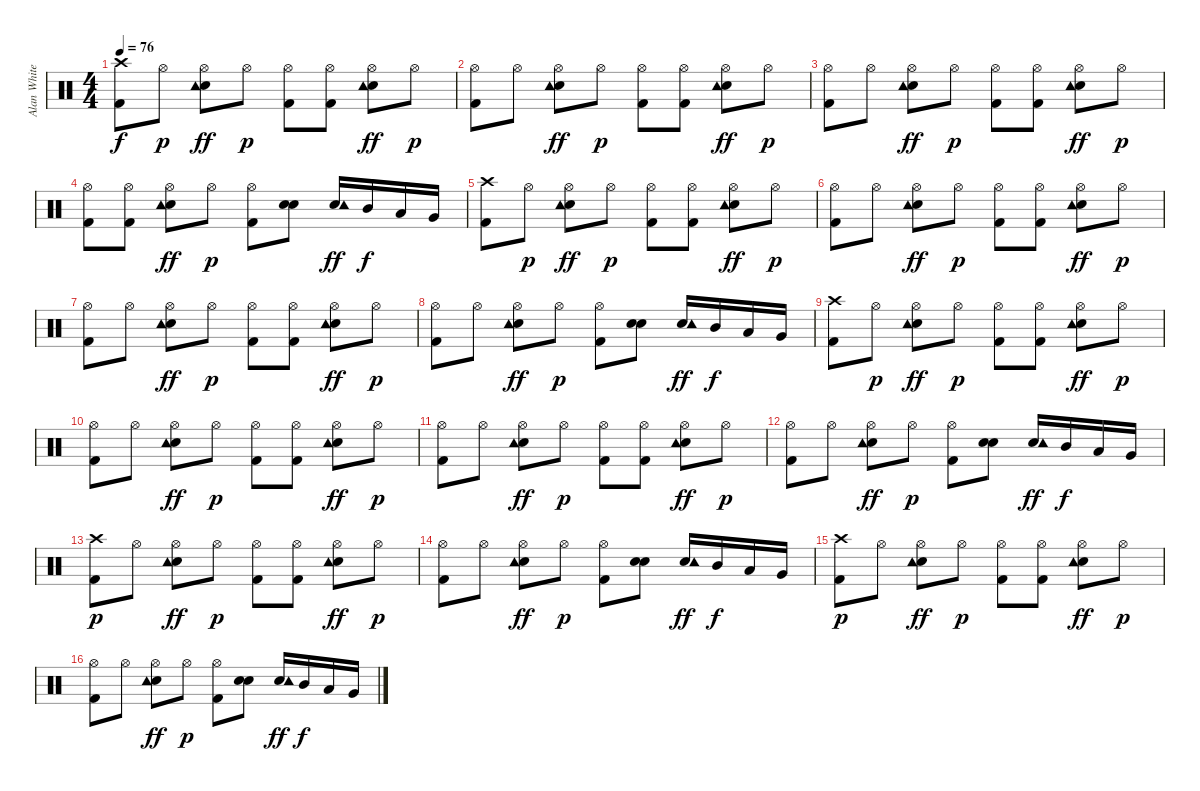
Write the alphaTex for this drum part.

\track ("Alan White" "Alan White") {instrument percussion}
\staff {score}
\articulation defaults
\ts (4 4)
\tempo 76
\clef neutral
\ks c
("Crash high (hit)" "Kick (hit) 2").8{dy f} "Hi-Hat (open)".8{dy p} ("Hi-Hat (open)" "Snare (hit) 2" "Tambourine (hit)").8{dy ff} "Hi-Hat (open)".8{dy p} ("Hi-Hat (open)" "Kick (hit) 2").8 ("Hi-Hat (open)" "Kick (hit) 2").8 ("Hi-Hat (open)" "Snare (hit) 2" "Tambourine (hit)").8{dy ff} "Hi-Hat (open)".8{dy p} |
("Hi-Hat (open)" "Kick (hit) 2").8 "Hi-Hat (open)".8 ("Hi-Hat (open)" "Snare (hit) 2" "Tambourine (hit)").8{dy ff} "Hi-Hat (open)".8{dy p} ("Hi-Hat (open)" "Kick (hit) 2").8 ("Hi-Hat (open)" "Kick (hit) 2").8 ("Hi-Hat (open)" "Snare (hit) 2" "Tambourine (hit)").8{dy ff} "Hi-Hat (open)".8{dy p} |
("Hi-Hat (open)" "Kick (hit) 2").8 "Hi-Hat (open)".8 ("Hi-Hat (open)" "Snare (hit) 2" "Tambourine (hit)").8{dy ff} "Hi-Hat (open)".8{dy p} ("Hi-Hat (open)" "Kick (hit) 2").8 ("Hi-Hat (open)" "Kick (hit) 2").8 ("Hi-Hat (open)" "Snare (hit) 2" "Tambourine (hit)").8{dy ff} "Hi-Hat (open)".8{dy p} |
("Hi-Hat (open)" "Kick (hit) 2").8 ("Hi-Hat (open)" "Kick (hit) 2").8 ("Hi-Hat (open)" "Snare (hit) 2" "Tambourine (hit)").8{dy ff} "Hi-Hat (open)".8{dy p} ("Hi-Hat (open)" "Kick (hit) 2").8 ("Snare (hit) 2" "Snare (hit) 2").8 ("Snare (hit) 2" "Tambourine (hit)").16{dy ff} "Mid Tom (hit)".16{dy f} "Low Tom (hit)".16 "Very Low Tom (hit)".16 |
("Crash high (hit)" "Kick (hit) 2").8 "Hi-Hat (open)".8{dy p} ("Hi-Hat (open)" "Snare (hit) 2" "Tambourine (hit)").8{dy ff} "Hi-Hat (open)".8{dy p} ("Hi-Hat (open)" "Kick (hit) 2").8 ("Hi-Hat (open)" "Kick (hit) 2").8 ("Hi-Hat (open)" "Snare (hit) 2" "Tambourine (hit)").8{dy ff} "Hi-Hat (open)".8{dy p} |
("Hi-Hat (open)" "Kick (hit) 2").8 "Hi-Hat (open)".8 ("Hi-Hat (open)" "Snare (hit) 2" "Tambourine (hit)").8{dy ff} "Hi-Hat (open)".8{dy p} ("Hi-Hat (open)" "Kick (hit) 2").8 ("Hi-Hat (open)" "Kick (hit) 2").8 ("Hi-Hat (open)" "Snare (hit) 2" "Tambourine (hit)").8{dy ff} "Hi-Hat (open)".8{dy p} |
("Hi-Hat (open)" "Kick (hit) 2").8 "Hi-Hat (open)".8 ("Hi-Hat (open)" "Snare (hit) 2" "Tambourine (hit)").8{dy ff} "Hi-Hat (open)".8{dy p} ("Hi-Hat (open)" "Kick (hit) 2").8 ("Hi-Hat (open)" "Kick (hit) 2").8 ("Hi-Hat (open)" "Snare (hit) 2" "Tambourine (hit)").8{dy ff} "Hi-Hat (open)".8{dy p} |
("Hi-Hat (open)" "Kick (hit) 2").8 "Hi-Hat (open)".8 ("Hi-Hat (open)" "Snare (hit) 2" "Tambourine (hit)").8{dy ff} "Hi-Hat (open)".8{dy p} ("Hi-Hat (open)" "Kick (hit) 2").8 ("Snare (hit) 2" "Snare (hit) 2").8 ("Snare (hit) 2" "Tambourine (hit)").16{dy ff} "Mid Tom (hit)".16{dy f} "Low Tom (hit)".16 "Very Low Tom (hit)".16 |
("Crash high (hit)" "Kick (hit) 2").8 "Hi-Hat (open)".8{dy p} ("Hi-Hat (open)" "Snare (hit) 2" "Tambourine (hit)").8{dy ff} "Hi-Hat (open)".8{dy p} ("Hi-Hat (open)" "Kick (hit) 2").8 ("Hi-Hat (open)" "Kick (hit) 2").8 ("Hi-Hat (open)" "Snare (hit) 2" "Tambourine (hit)").8{dy ff} "Hi-Hat (open)".8{dy p} |
("Hi-Hat (open)" "Kick (hit) 2").8 "Hi-Hat (open)".8 ("Hi-Hat (open)" "Snare (hit) 2" "Tambourine (hit)").8{dy ff} "Hi-Hat (open)".8{dy p} ("Hi-Hat (open)" "Kick (hit) 2").8 ("Hi-Hat (open)" "Kick (hit) 2").8 ("Hi-Hat (open)" "Snare (hit) 2" "Tambourine (hit)").8{dy ff} "Hi-Hat (open)".8{dy p} |
("Hi-Hat (open)" "Kick (hit) 2").8 "Hi-Hat (open)".8 ("Hi-Hat (open)" "Snare (hit) 2" "Tambourine (hit)").8{dy ff} "Hi-Hat (open)".8{dy p} ("Hi-Hat (open)" "Kick (hit) 2").8 ("Hi-Hat (open)" "Kick (hit) 2").8 ("Hi-Hat (open)" "Snare (hit) 2" "Tambourine (hit)").8{dy ff} "Hi-Hat (open)".8{dy p} |
("Hi-Hat (open)" "Kick (hit) 2").8 "Hi-Hat (open)".8 ("Hi-Hat (open)" "Snare (hit) 2" "Tambourine (hit)").8{dy ff} "Hi-Hat (open)".8{dy p} ("Hi-Hat (open)" "Kick (hit) 2").8 ("Snare (hit) 2" "Snare (hit) 2").8 ("Snare (hit) 2" "Tambourine (hit)").16{dy ff} "Mid Tom (hit)".16{dy f} "Low Tom (hit)".16 "Very Low Tom (hit)".16 |
("Crash high (hit)" "Kick (hit) 2").8{dy p} "Hi-Hat (open)".8 ("Hi-Hat (open)" "Snare (hit) 2" "Tambourine (hit)").8{dy ff} "Hi-Hat (open)".8{dy p} ("Hi-Hat (open)" "Kick (hit) 2").8 ("Hi-Hat (open)" "Kick (hit) 2").8 ("Hi-Hat (open)" "Snare (hit) 2" "Tambourine (hit)").8{dy ff} "Hi-Hat (open)".8{dy p} |
("Hi-Hat (open)" "Kick (hit) 2").8 "Hi-Hat (open)".8 ("Hi-Hat (open)" "Snare (hit) 2" "Tambourine (hit)").8{dy ff} "Hi-Hat (open)".8{dy p} ("Hi-Hat (open)" "Kick (hit) 2").8 ("Snare (hit) 2" "Snare (hit) 2").8 ("Snare (hit) 2" "Tambourine (hit)").16{dy ff} "Mid Tom (hit)".16{dy f} "Low Tom (hit)".16 "Very Low Tom (hit)".16 |
("Crash high (hit)" "Kick (hit) 2").8{dy p} "Hi-Hat (open)".8 ("Hi-Hat (open)" "Snare (hit) 2" "Tambourine (hit)").8{dy ff} "Hi-Hat (open)".8{dy p} ("Hi-Hat (open)" "Kick (hit) 2").8 ("Hi-Hat (open)" "Kick (hit) 2").8 ("Hi-Hat (open)" "Snare (hit) 2" "Tambourine (hit)").8{dy ff} "Hi-Hat (open)".8{dy p} |
("Hi-Hat (open)" "Kick (hit) 2").8 "Hi-Hat (open)".8 ("Hi-Hat (open)" "Snare (hit) 2" "Tambourine (hit)").8{dy ff} "Hi-Hat (open)".8{dy p} ("Hi-Hat (open)" "Kick (hit) 2").8 ("Snare (hit) 2" "Snare (hit) 2").8 ("Snare (hit) 2" "Tambourine (hit)").16{dy ff} "Mid Tom (hit)".16{dy f} "Low Tom (hit)".16 "Very Low Tom (hit)".16
